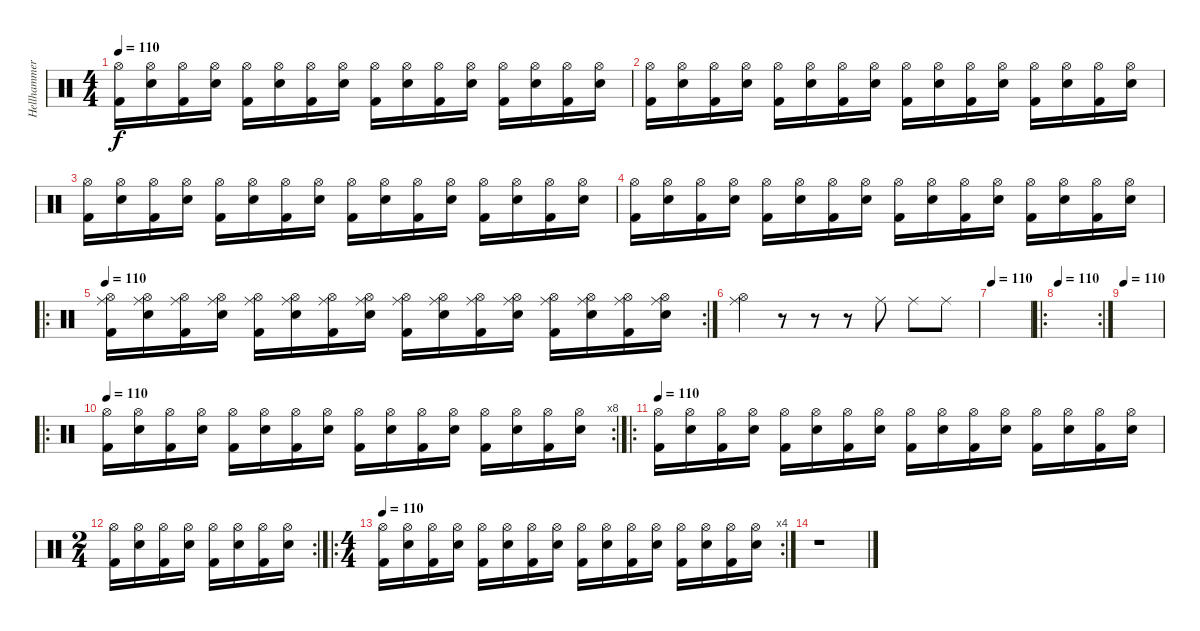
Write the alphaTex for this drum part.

\track ("Hellhammer" "Hellhammer") {instrument percussion}
\staff {score}
\articulation defaults
\ts (4 4)
\tempo 110
\clef neutral
\ks c
("Hi-Hat (open)" "Kick (hit) 2").16{dy f} ("Hi-Hat (open)" "Snare (hit) 2").16 ("Hi-Hat (open)" "Kick (hit) 2").16 ("Hi-Hat (open)" "Snare (hit) 2").16 ("Hi-Hat (open)" "Kick (hit) 2").16 ("Hi-Hat (open)" "Snare (hit) 2").16 ("Hi-Hat (open)" "Kick (hit) 2").16 ("Hi-Hat (open)" "Snare (hit) 2").16 ("Hi-Hat (open)" "Kick (hit) 2").16 ("Hi-Hat (open)" "Snare (hit) 2").16 ("Hi-Hat (open)" "Kick (hit) 2").16 ("Hi-Hat (open)" "Snare (hit) 2").16 ("Hi-Hat (open)" "Kick (hit) 2").16 ("Hi-Hat (open)" "Snare (hit) 2").16 ("Hi-Hat (open)" "Kick (hit) 2").16 ("Hi-Hat (open)" "Snare (hit) 2").16 |
("Hi-Hat (open)" "Kick (hit) 2").16 ("Hi-Hat (open)" "Snare (hit) 2").16 ("Hi-Hat (open)" "Kick (hit) 2").16 ("Hi-Hat (open)" "Snare (hit) 2").16 ("Hi-Hat (open)" "Kick (hit) 2").16 ("Hi-Hat (open)" "Snare (hit) 2").16 ("Hi-Hat (open)" "Kick (hit) 2").16 ("Hi-Hat (open)" "Snare (hit) 2").16 ("Hi-Hat (open)" "Kick (hit) 2").16 ("Hi-Hat (open)" "Snare (hit) 2").16 ("Hi-Hat (open)" "Kick (hit) 2").16 ("Hi-Hat (open)" "Snare (hit) 2").16 ("Hi-Hat (open)" "Kick (hit) 2").16 ("Hi-Hat (open)" "Snare (hit) 2").16 ("Hi-Hat (open)" "Kick (hit) 2").16 ("Hi-Hat (open)" "Snare (hit) 2").16 |
("Hi-Hat (open)" "Kick (hit) 2").16 ("Hi-Hat (open)" "Snare (hit) 2").16 ("Hi-Hat (open)" "Kick (hit) 2").16 ("Hi-Hat (open)" "Snare (hit) 2").16 ("Hi-Hat (open)" "Kick (hit) 2").16 ("Hi-Hat (open)" "Snare (hit) 2").16 ("Hi-Hat (open)" "Kick (hit) 2").16 ("Hi-Hat (open)" "Snare (hit) 2").16 ("Hi-Hat (open)" "Kick (hit) 2").16 ("Hi-Hat (open)" "Snare (hit) 2").16 ("Hi-Hat (open)" "Kick (hit) 2").16 ("Hi-Hat (open)" "Snare (hit) 2").16 ("Hi-Hat (open)" "Kick (hit) 2").16 ("Hi-Hat (open)" "Snare (hit) 2").16 ("Hi-Hat (open)" "Kick (hit) 2").16 ("Hi-Hat (open)" "Snare (hit) 2").16 |
("Hi-Hat (open)" "Kick (hit) 2").16 ("Hi-Hat (open)" "Snare (hit) 2").16 ("Hi-Hat (open)" "Kick (hit) 2").16 ("Hi-Hat (open)" "Snare (hit) 2").16 ("Hi-Hat (open)" "Kick (hit) 2").16 ("Hi-Hat (open)" "Snare (hit) 2").16 ("Hi-Hat (open)" "Kick (hit) 2").16 ("Hi-Hat (open)" "Snare (hit) 2").16 ("Hi-Hat (open)" "Kick (hit) 2").16 ("Hi-Hat (open)" "Snare (hit) 2").16 ("Hi-Hat (open)" "Kick (hit) 2").16 ("Hi-Hat (open)" "Snare (hit) 2").16 ("Hi-Hat (open)" "Kick (hit) 2").16 ("Hi-Hat (open)" "Snare (hit) 2").16 ("Hi-Hat (open)" "Kick (hit) 2").16 ("Hi-Hat (open)" "Snare (hit) 2").16 |
\ro
\rc 2
\tempo 110
("Ride (middle)" "Hi-Hat (open)" "Kick (hit) 2").16 ("Ride (middle)" "Hi-Hat (open)" "Snare (hit) 2").16 ("Ride (middle)" "Hi-Hat (open)" "Kick (hit) 2").16 ("Ride (middle)" "Hi-Hat (open)" "Snare (hit) 2").16 ("Ride (middle)" "Hi-Hat (open)" "Kick (hit) 2").16 ("Ride (middle)" "Hi-Hat (open)" "Snare (hit) 2").16 ("Ride (middle)" "Hi-Hat (open)" "Kick (hit) 2").16 ("Ride (middle)" "Hi-Hat (open)" "Snare (hit) 2").16 ("Ride (middle)" "Hi-Hat (open)" "Kick (hit) 2").16 ("Ride (middle)" "Hi-Hat (open)" "Snare (hit) 2").16 ("Ride (middle)" "Hi-Hat (open)" "Kick (hit) 2").16 ("Ride (middle)" "Hi-Hat (open)" "Snare (hit) 2").16 ("Ride (middle)" "Hi-Hat (open)" "Kick (hit) 2").16 ("Ride (middle)" "Hi-Hat (open)" "Snare (hit) 2").16 ("Ride (middle)" "Hi-Hat (open)" "Kick (hit) 2").16 ("Ride (middle)" "Hi-Hat (open)" "Snare (hit) 2").16 |
("Ride (middle)" "Hi-Hat (open)").4 r.8 r.8 r.8 "Ride (middle)".8 "Ride (middle)".8 "Ride (middle)".8 |
\tempo 110
|
\ro
\rc 2
\tempo 110
|
\tempo 110
|
\ro
\rc 8
\tempo 110
("Hi-Hat (open)" "Kick (hit) 2").16 ("Hi-Hat (open)" "Snare (hit) 2").16 ("Hi-Hat (open)" "Kick (hit) 2").16 ("Hi-Hat (open)" "Snare (hit) 2").16 ("Hi-Hat (open)" "Kick (hit) 2").16 ("Hi-Hat (open)" "Snare (hit) 2").16 ("Hi-Hat (open)" "Kick (hit) 2").16 ("Hi-Hat (open)" "Snare (hit) 2").16 ("Hi-Hat (open)" "Kick (hit) 2").16 ("Hi-Hat (open)" "Snare (hit) 2").16 ("Hi-Hat (open)" "Kick (hit) 2").16 ("Hi-Hat (open)" "Snare (hit) 2").16 ("Hi-Hat (open)" "Kick (hit) 2").16 ("Hi-Hat (open)" "Snare (hit) 2").16 ("Hi-Hat (open)" "Kick (hit) 2").16 ("Hi-Hat (open)" "Snare (hit) 2").16 |
\ro
\tempo 110
("Hi-Hat (open)" "Kick (hit) 2").16 ("Hi-Hat (open)" "Snare (hit) 2").16 ("Hi-Hat (open)" "Kick (hit) 2").16 ("Hi-Hat (open)" "Snare (hit) 2").16 ("Hi-Hat (open)" "Kick (hit) 2").16 ("Hi-Hat (open)" "Snare (hit) 2").16 ("Hi-Hat (open)" "Kick (hit) 2").16 ("Hi-Hat (open)" "Snare (hit) 2").16 ("Hi-Hat (open)" "Kick (hit) 2").16 ("Hi-Hat (open)" "Snare (hit) 2").16 ("Hi-Hat (open)" "Kick (hit) 2").16 ("Hi-Hat (open)" "Snare (hit) 2").16 ("Hi-Hat (open)" "Kick (hit) 2").16 ("Hi-Hat (open)" "Snare (hit) 2").16 ("Hi-Hat (open)" "Kick (hit) 2").16 ("Hi-Hat (open)" "Snare (hit) 2").16 |
\rc 2
\ts (2 4)
("Hi-Hat (open)" "Kick (hit) 2").16 ("Hi-Hat (open)" "Snare (hit) 2").16 ("Hi-Hat (open)" "Kick (hit) 2").16 ("Hi-Hat (open)" "Snare (hit) 2").16 ("Hi-Hat (open)" "Kick (hit) 2").16 ("Hi-Hat (open)" "Snare (hit) 2").16 ("Hi-Hat (open)" "Kick (hit) 2").16 ("Hi-Hat (open)" "Snare (hit) 2").16 |
\ro
\rc 4
\ts (4 4)
\tempo 110
("Hi-Hat (open)" "Kick (hit) 2").16 ("Hi-Hat (open)" "Snare (hit) 2").16 ("Hi-Hat (open)" "Kick (hit) 2").16 ("Hi-Hat (open)" "Snare (hit) 2").16 ("Hi-Hat (open)" "Kick (hit) 2").16 ("Hi-Hat (open)" "Snare (hit) 2").16 ("Hi-Hat (open)" "Kick (hit) 2").16 ("Hi-Hat (open)" "Snare (hit) 2").16 ("Hi-Hat (open)" "Kick (hit) 2").16 ("Hi-Hat (open)" "Snare (hit) 2").16 ("Hi-Hat (open)" "Kick (hit) 2").16 ("Hi-Hat (open)" "Snare (hit) 2").16 ("Hi-Hat (open)" "Kick (hit) 2").16 ("Hi-Hat (open)" "Snare (hit) 2").16 ("Hi-Hat (open)" "Kick (hit) 2").16 ("Hi-Hat (open)" "Snare (hit) 2").16 |
r.1
